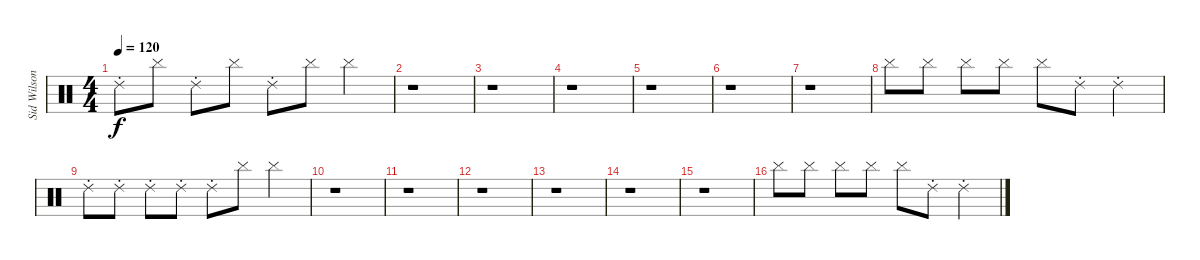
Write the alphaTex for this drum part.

\track ("Sid Wilson" "Sid Wilson") {instrument percussion}
\staff {score}
\articulation defaults
\ts (4 4)
\tempo 120
\clef neutral
\ks c "Ride (choke) 2".8{dy f} "Cymbal (hit)".8 "Ride (choke) 2".8 "Cymbal (hit)".8 "Ride (choke) 2".8 "Cymbal (hit)".8 "Cymbal (hit)".4
|
r.1 |
r.1 |
r.1 |
r.1 |
r.1 |
r.1 |
"Cymbal (hit)".8 "Cymbal (hit)".8 "Cymbal (hit)".8 "Cymbal (hit)".8 "Cymbal (hit)".8 "Ride (choke) 2".8 "Ride (choke) 2".4 |
"Ride (choke) 2".8 "Ride (choke) 2".8 "Ride (choke) 2".8 "Ride (choke) 2".8 "Ride (choke) 2".8 "Cymbal (hit)".8 "Cymbal (hit)".4 |
r.1 |
r.1 |
r.1 |
r.1 |
r.1 |
r.1 |
"Cymbal (hit)".8 "Cymbal (hit)".8 "Cymbal (hit)".8 "Cymbal (hit)".8 "Cymbal (hit)".8 "Ride (choke) 2".8 "Ride (choke) 2".4
